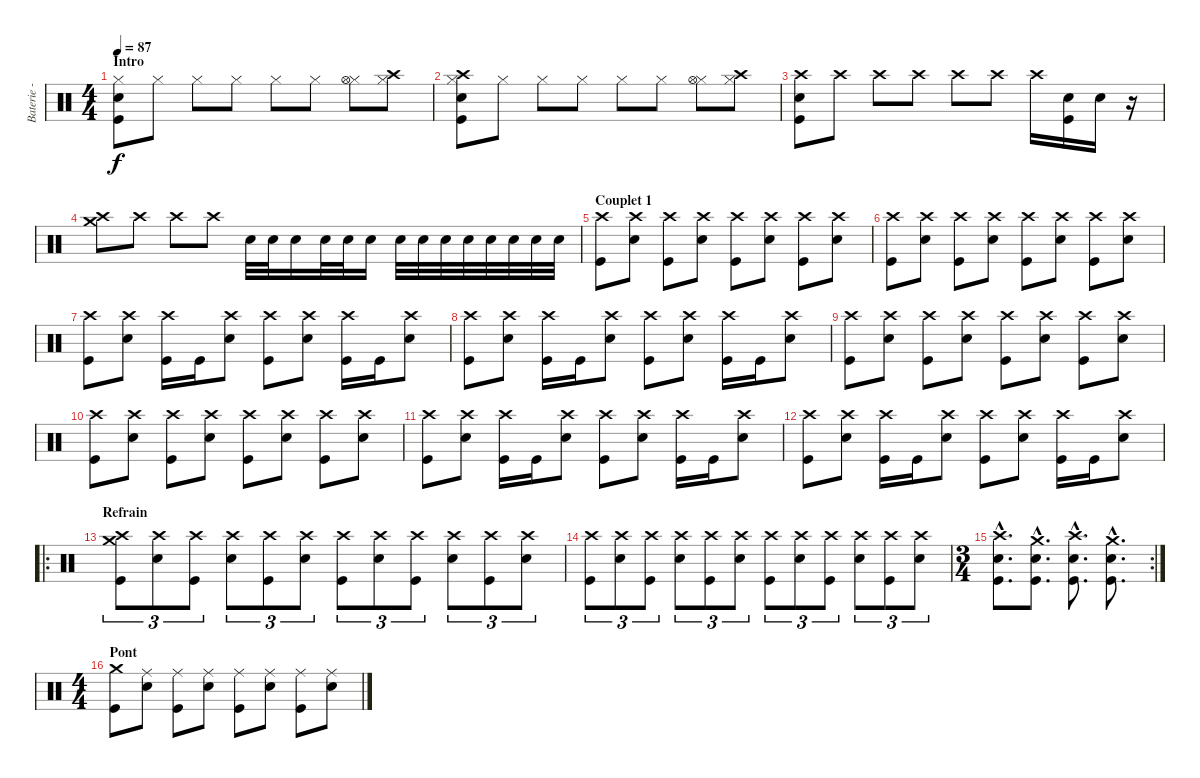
\track ("Baterie - Alex" "Baterie - ") {instrument percussion}
\staff {score}
\articulation defaults
\ts (4 4)
\section ("" "Intro")
\tempo 87
\clef neutral
\ks c
("Hi-Hat (closed)" "Electric Snare (hit)" "Kick (hit)").8{dy f} "Hi-Hat (closed)".8 "Hi-Hat (closed)".8 "Hi-Hat (closed)".8 "Hi-Hat (closed)".8 "Hi-Hat (closed)".8 ("Hi-Hat (closed)" "Hi-Hat (open)").8 ("Hi-Hat (closed)" "Crash high (hit)").8 |
("Hi-Hat (closed)" "Crash high (hit)" "Electric Snare (hit)" "Kick (hit)").8 "Hi-Hat (closed)".8 "Hi-Hat (closed)".8 "Hi-Hat (closed)".8 "Hi-Hat (closed)".8 "Hi-Hat (closed)".8 ("Hi-Hat (closed)" "Hi-Hat (open)").8 ("Hi-Hat (closed)" "Crash high (hit)").8 |
("Crash high (hit)" "Electric Snare (hit)" "Kick (hit)").8 "Crash high (hit)".8 "Crash high (hit)".8 "Crash high (hit)".8 "Crash high (hit)".8 "Crash high (hit)".8 "Crash high (hit)".16 ("Electric Snare (hit)" "Kick (hit)").16 "Electric Snare (hit)".16 r.16 |
("Crash high (hit)" "Crash medium (hit)").8 "Crash high (hit)".8 "Crash high (hit)".8 "Crash high (hit)".8 "Electric Snare (hit)".32 "Electric Snare (hit)".32 "Electric Snare (hit)".16 "Electric Snare (hit)".32 "Electric Snare (hit)".32 "Electric Snare (hit)".16 "Electric Snare (hit)".32 "Electric Snare (hit)".32 "Electric Snare (hit)".32 "Electric Snare (hit)".32 "Electric Snare (hit)".32 "Electric Snare (hit)".32 "Electric Snare (hit)".32 "Electric Snare (hit)".32 |
\section ("" "Couplet 1")
("Crash high (hit)" "Kick (hit)").8 ("Crash high (hit)" "Electric Snare (hit)").8 ("Crash high (hit)" "Kick (hit)").8 ("Crash high (hit)" "Electric Snare (hit)").8 ("Crash high (hit)" "Kick (hit)").8 ("Crash high (hit)" "Electric Snare (hit)").8 ("Crash high (hit)" "Kick (hit)").8 ("Crash high (hit)" "Electric Snare (hit)").8 |
("Crash high (hit)" "Kick (hit)").8 ("Crash high (hit)" "Electric Snare (hit)").8 ("Crash high (hit)" "Kick (hit)").8 ("Crash high (hit)" "Electric Snare (hit)").8 ("Crash high (hit)" "Kick (hit)").8 ("Crash high (hit)" "Electric Snare (hit)").8 ("Crash high (hit)" "Kick (hit)").8 ("Crash high (hit)" "Electric Snare (hit)").8 |
("Crash high (hit)" "Kick (hit)").8 ("Crash high (hit)" "Electric Snare (hit)").8 ("Crash high (hit)" "Kick (hit)").16 "Kick (hit)".16 ("Crash high (hit)" "Electric Snare (hit)").8 ("Crash high (hit)" "Kick (hit)").8 ("Crash high (hit)" "Electric Snare (hit)").8 ("Crash high (hit)" "Kick (hit)").16 "Kick (hit)".16 ("Crash high (hit)" "Electric Snare (hit)").8 |
("Crash high (hit)" "Kick (hit)").8 ("Crash high (hit)" "Electric Snare (hit)").8 ("Crash high (hit)" "Kick (hit)").16 "Kick (hit)".16 ("Crash high (hit)" "Electric Snare (hit)").8 ("Crash high (hit)" "Kick (hit)").8 ("Crash high (hit)" "Electric Snare (hit)").8 ("Crash high (hit)" "Kick (hit)").16 "Kick (hit)".16 ("Crash high (hit)" "Electric Snare (hit)").8 |
("Crash high (hit)" "Kick (hit)").8 ("Crash high (hit)" "Electric Snare (hit)").8 ("Crash high (hit)" "Kick (hit)").8 ("Crash high (hit)" "Electric Snare (hit)").8 ("Crash high (hit)" "Kick (hit)").8 ("Crash high (hit)" "Electric Snare (hit)").8 ("Crash high (hit)" "Kick (hit)").8 ("Crash high (hit)" "Electric Snare (hit)").8 |
("Crash high (hit)" "Kick (hit)").8 ("Crash high (hit)" "Electric Snare (hit)").8 ("Crash high (hit)" "Kick (hit)").8 ("Crash high (hit)" "Electric Snare (hit)").8 ("Crash high (hit)" "Kick (hit)").8 ("Crash high (hit)" "Electric Snare (hit)").8 ("Crash high (hit)" "Kick (hit)").8 ("Crash high (hit)" "Electric Snare (hit)").8 |
("Crash high (hit)" "Kick (hit)").8 ("Crash high (hit)" "Electric Snare (hit)").8 ("Crash high (hit)" "Kick (hit)").16 "Kick (hit)".16 ("Crash high (hit)" "Electric Snare (hit)").8 ("Crash high (hit)" "Kick (hit)").8 ("Crash high (hit)" "Electric Snare (hit)").8 ("Crash high (hit)" "Kick (hit)").16 "Kick (hit)".16 ("Crash high (hit)" "Electric Snare (hit)").8 |
("Crash high (hit)" "Kick (hit)").8 ("Crash high (hit)" "Electric Snare (hit)").8 ("Crash high (hit)" "Kick (hit)").16 "Kick (hit)".16 ("Crash high (hit)" "Electric Snare (hit)").8 ("Crash high (hit)" "Kick (hit)").8 ("Crash high (hit)" "Electric Snare (hit)").8 ("Crash high (hit)" "Kick (hit)").16 "Kick (hit)".16 ("Crash high (hit)" "Electric Snare (hit)").8 |
\ro
\section ("" "Refrain")
("Crash high (hit)" "Crash medium (hit)" "Kick (hit)").8{tu (3 2)} ("Crash high (hit)" "Electric Snare (hit)").8{tu (3 2)} ("Crash high (hit)" "Kick (hit)").8{tu (3 2)} ("Crash high (hit)" "Electric Snare (hit)").8{tu (3 2)} ("Crash high (hit)" "Kick (hit)").8{tu (3 2)} ("Crash high (hit)" "Electric Snare (hit)").8{tu (3 2)} ("Crash high (hit)" "Kick (hit)").8{tu (3 2)} ("Crash high (hit)" "Electric Snare (hit)").8{tu (3 2)} ("Crash high (hit)" "Kick (hit)").8{tu (3 2)} ("Crash high (hit)" "Electric Snare (hit)").8{tu (3 2)} ("Crash high (hit)" "Kick (hit)").8{tu (3 2)} ("Crash high (hit)" "Electric Snare (hit)").8{tu (3 2)} |
("Crash high (hit)" "Kick (hit)").8{tu (3 2)} ("Crash high (hit)" "Electric Snare (hit)").8{tu (3 2)} ("Crash high (hit)" "Kick (hit)").8{tu (3 2)} ("Crash high (hit)" "Electric Snare (hit)").8{tu (3 2)} ("Crash high (hit)" "Kick (hit)").8{tu (3 2)} ("Crash high (hit)" "Electric Snare (hit)").8{tu (3 2)} ("Crash high (hit)" "Kick (hit)").8{tu (3 2)} ("Crash high (hit)" "Electric Snare (hit)").8{tu (3 2)} ("Crash high (hit)" "Kick (hit)").8{tu (3 2)} ("Crash high (hit)" "Electric Snare (hit)").8{tu (3 2)} ("Crash high (hit)" "Kick (hit)").8{tu (3 2)} ("Crash high (hit)" "Electric Snare (hit)").8{tu (3 2)} |
\rc 2
\ts (3 4)
("Crash high (hit)"{hac} "Electric Snare (hit)"{hac} "Kick (hit)"{hac}).8{d} ("Crash medium (hit)"{hac} "Electric Snare (hit)"{hac} "Kick (hit)"{hac}).8{d} ("Crash high (hit)"{hac} "Electric Snare (hit)"{hac} "Kick (hit)"{hac}).8{d} ("Crash medium (hit)"{hac} "Electric Snare (hit)"{hac} "Kick (hit)"{hac}).8{d} |
\ts (4 4)
\section ("" "Pont")
("Crash medium (hit)" "Kick (hit)").8 ("Ride (middle)" "Electric Snare (hit)").8 ("Ride (middle)" "Kick (hit)").8 ("Ride (middle)" "Electric Snare (hit)").8 ("Ride (middle)" "Kick (hit)").8 ("Ride (middle)" "Electric Snare (hit)").8 ("Ride (middle)" "Kick (hit)").8 ("Ride (middle)" "Electric Snare (hit)").8
